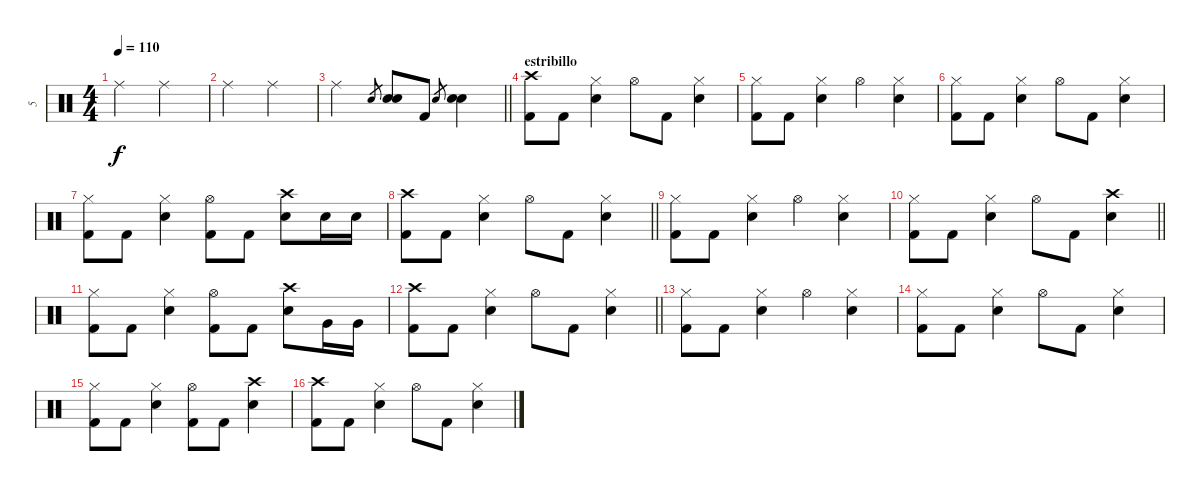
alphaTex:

\track ("5" "5") {instrument percussion}
\staff {score}
\articulation defaults
\ts (4 4)
\tempo 110
\clef neutral
\ks c "Ride (middle)".2{dy f} "Ride (middle)".2
|
"Ride (middle)".2 "Ride (middle)".2 |
\barLineRight lightlight "Ride (middle)".2 "Electric Snare (hit)".8{gr}
("Electric Snare (hit)" "Electric Snare (hit)").8 "Kick (hit) 2".8 "Electric Snare (hit)".8{gr} ("Electric Snare (hit)" "Electric Snare (hit)").4 |
\section ("" "estribillo")
("Crash high (hit)" "Kick (hit) 2").8 "Kick (hit) 2".8 ("Hi-Hat (closed)" "Electric Snare (hit)").4 "Hi-Hat (open)".8 "Kick (hit) 2".8 ("Hi-Hat (closed)" "Electric Snare (hit)").4 |
("Hi-Hat (closed)" "Kick (hit) 2").8 "Kick (hit) 2".8 ("Hi-Hat (closed)" "Electric Snare (hit)").4 "Hi-Hat (open)".4 ("Hi-Hat (closed)" "Electric Snare (hit)").4 |
("Hi-Hat (closed)" "Kick (hit) 2").8 "Kick (hit) 2".8 ("Hi-Hat (closed)" "Electric Snare (hit)").4 "Hi-Hat (open)".8 "Kick (hit) 2".8 ("Hi-Hat (closed)" "Electric Snare (hit)").4 |
("Hi-Hat (closed)" "Kick (hit) 2").8 "Kick (hit) 2".8 ("Hi-Hat (closed)" "Electric Snare (hit)").4 ("Hi-Hat (open)" "Kick (hit) 2").8 "Kick (hit) 2".8 ("Crash high (hit)" "Electric Snare (hit)").8 "Electric Snare (hit)".16 "Electric Snare (hit)".16 |
\barLineRight lightlight
("Crash high (hit)" "Kick (hit) 2").8 "Kick (hit) 2".8 ("Hi-Hat (closed)" "Electric Snare (hit)").4 "Hi-Hat (open)".8 "Kick (hit) 2".8 ("Hi-Hat (closed)" "Electric Snare (hit)").4 |
("Hi-Hat (closed)" "Kick (hit) 2").8 "Kick (hit) 2".8 ("Hi-Hat (closed)" "Electric Snare (hit)").4 "Hi-Hat (open)".4 ("Hi-Hat (closed)" "Electric Snare (hit)").4 |
\barLineRight lightlight
("Hi-Hat (closed)" "Kick (hit) 2").8 "Kick (hit) 2".8 ("Hi-Hat (closed)" "Electric Snare (hit)").4 "Hi-Hat (open)".8 "Kick (hit) 2".8 ("Crash high (hit)" "Electric Snare (hit)").4 |
("Hi-Hat (closed)" "Kick (hit) 2").8 "Kick (hit) 2".8 ("Hi-Hat (closed)" "Electric Snare (hit)").4 ("Hi-Hat (open)" "Kick (hit) 2").8 "Kick (hit) 2".8 ("Crash high (hit)" "Electric Snare (hit)").8 "Very Low Tom (hit)".16 "Very Low Tom (hit)".16 |
\barLineRight lightlight
("Crash high (hit)" "Kick (hit) 2").8 "Kick (hit) 2".8 ("Hi-Hat (closed)" "Electric Snare (hit)").4 "Hi-Hat (open)".8 "Kick (hit) 2".8 ("Hi-Hat (closed)" "Electric Snare (hit)").4 |
("Hi-Hat (closed)" "Kick (hit) 2").8 "Kick (hit) 2".8 ("Hi-Hat (closed)" "Electric Snare (hit)").4 "Hi-Hat (open)".4 ("Hi-Hat (closed)" "Electric Snare (hit)").4 |
("Hi-Hat (closed)" "Kick (hit) 2").8 "Kick (hit) 2".8 ("Hi-Hat (closed)" "Electric Snare (hit)").4 "Hi-Hat (open)".8 "Kick (hit) 2".8 ("Hi-Hat (closed)" "Electric Snare (hit)").4 |
("Hi-Hat (closed)" "Kick (hit) 2").8 "Kick (hit) 2".8 ("Hi-Hat (closed)" "Electric Snare (hit)").4 ("Hi-Hat (open)" "Kick (hit) 2").8 "Kick (hit) 2".8 ("Crash high (hit)" "Electric Snare (hit)").4 |
("Crash high (hit)" "Kick (hit) 2").8 "Kick (hit) 2".8 ("Hi-Hat (closed)" "Electric Snare (hit)").4 "Hi-Hat (open)".8 "Kick (hit) 2".8 ("Hi-Hat (closed)" "Electric Snare (hit)").4
